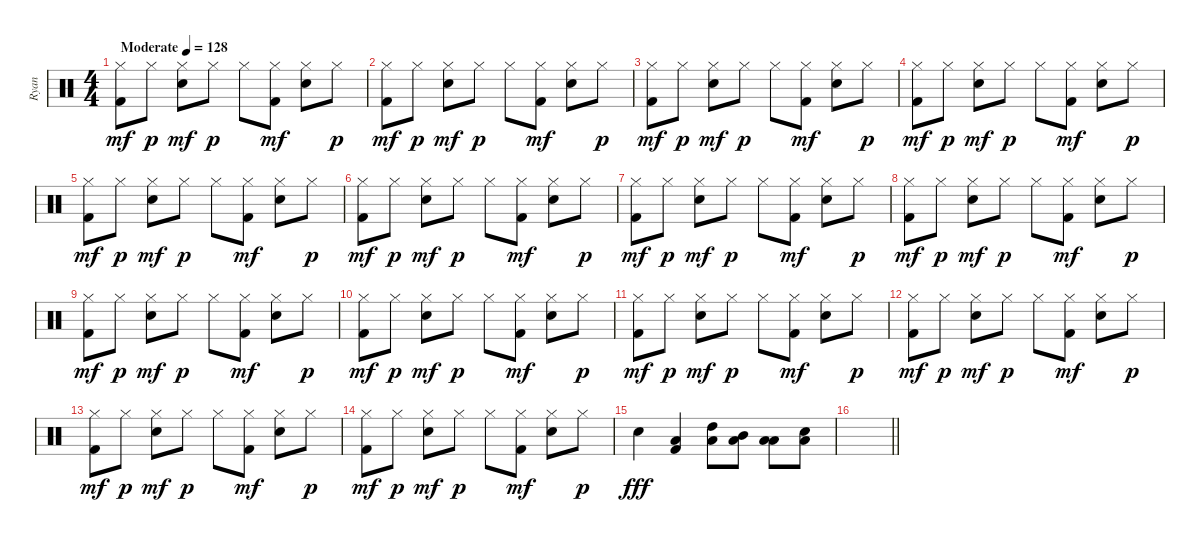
\track ("Ryan" "Ryan") {instrument percussion}
\staff {score}
\articulation defaults
\ts (4 4)
\tempo (128 "Moderate")
\clef neutral
\ks c
("Kick (hit) 2" "Hi-Hat (closed)").8{dy mf} "Hi-Hat (closed)".8{dy p} ("Snare (hit) 2" "Hi-Hat (closed)").8{dy mf} "Hi-Hat (closed)".8{dy p} "Hi-Hat (closed)".8 ("Kick (hit) 2" "Hi-Hat (closed)").8{dy mf} ("Snare (hit) 2" "Hi-Hat (closed)").8 "Hi-Hat (closed)".8{dy p} |
("Kick (hit) 2" "Hi-Hat (closed)").8{dy mf} "Hi-Hat (closed)".8{dy p} ("Snare (hit) 2" "Hi-Hat (closed)").8{dy mf} "Hi-Hat (closed)".8{dy p} "Hi-Hat (closed)".8 ("Kick (hit) 2" "Hi-Hat (closed)").8{dy mf} ("Snare (hit) 2" "Hi-Hat (closed)").8 "Hi-Hat (closed)".8{dy p} |
("Kick (hit) 2" "Hi-Hat (closed)").8{dy mf} "Hi-Hat (closed)".8{dy p} ("Snare (hit) 2" "Hi-Hat (closed)").8{dy mf} "Hi-Hat (closed)".8{dy p} "Hi-Hat (closed)".8 ("Kick (hit) 2" "Hi-Hat (closed)").8{dy mf} ("Snare (hit) 2" "Hi-Hat (closed)").8 "Hi-Hat (closed)".8{dy p} |
("Kick (hit) 2" "Hi-Hat (closed)").8{dy mf} "Hi-Hat (closed)".8{dy p} ("Snare (hit) 2" "Hi-Hat (closed)").8{dy mf} "Hi-Hat (closed)".8{dy p} "Hi-Hat (closed)".8 ("Kick (hit) 2" "Hi-Hat (closed)").8{dy mf} ("Snare (hit) 2" "Hi-Hat (closed)").8 "Hi-Hat (closed)".8{dy p} |
("Kick (hit) 2" "Hi-Hat (closed)").8{dy mf} "Hi-Hat (closed)".8{dy p} ("Snare (hit) 2" "Hi-Hat (closed)").8{dy mf} "Hi-Hat (closed)".8{dy p} "Hi-Hat (closed)".8 ("Kick (hit) 2" "Hi-Hat (closed)").8{dy mf} ("Snare (hit) 2" "Hi-Hat (closed)").8 "Hi-Hat (closed)".8{dy p} |
("Kick (hit) 2" "Hi-Hat (closed)").8{dy mf} "Hi-Hat (closed)".8{dy p} ("Snare (hit) 2" "Hi-Hat (closed)").8{dy mf} "Hi-Hat (closed)".8{dy p} "Hi-Hat (closed)".8 ("Kick (hit) 2" "Hi-Hat (closed)").8{dy mf} ("Snare (hit) 2" "Hi-Hat (closed)").8 "Hi-Hat (closed)".8{dy p} |
("Kick (hit) 2" "Hi-Hat (closed)").8{dy mf} "Hi-Hat (closed)".8{dy p} ("Snare (hit) 2" "Hi-Hat (closed)").8{dy mf} "Hi-Hat (closed)".8{dy p} "Hi-Hat (closed)".8 ("Kick (hit) 2" "Hi-Hat (closed)").8{dy mf} ("Snare (hit) 2" "Hi-Hat (closed)").8 "Hi-Hat (closed)".8{dy p} |
("Kick (hit) 2" "Hi-Hat (closed)").8{dy mf} "Hi-Hat (closed)".8{dy p} ("Snare (hit) 2" "Hi-Hat (closed)").8{dy mf} "Hi-Hat (closed)".8{dy p} "Hi-Hat (closed)".8 ("Kick (hit) 2" "Hi-Hat (closed)").8{dy mf} ("Snare (hit) 2" "Hi-Hat (closed)").8 "Hi-Hat (closed)".8{dy p} |
("Kick (hit) 2" "Hi-Hat (closed)").8{dy mf} "Hi-Hat (closed)".8{dy p} ("Snare (hit) 2" "Hi-Hat (closed)").8{dy mf} "Hi-Hat (closed)".8{dy p} "Hi-Hat (closed)".8 ("Kick (hit) 2" "Hi-Hat (closed)").8{dy mf} ("Snare (hit) 2" "Hi-Hat (closed)").8 "Hi-Hat (closed)".8{dy p} |
("Kick (hit) 2" "Hi-Hat (closed)").8{dy mf} "Hi-Hat (closed)".8{dy p} ("Snare (hit) 2" "Hi-Hat (closed)").8{dy mf} "Hi-Hat (closed)".8{dy p} "Hi-Hat (closed)".8 ("Kick (hit) 2" "Hi-Hat (closed)").8{dy mf} ("Snare (hit) 2" "Hi-Hat (closed)").8 "Hi-Hat (closed)".8{dy p} |
("Kick (hit) 2" "Hi-Hat (closed)").8{dy mf} "Hi-Hat (closed)".8{dy p} ("Snare (hit) 2" "Hi-Hat (closed)").8{dy mf} "Hi-Hat (closed)".8{dy p} "Hi-Hat (closed)".8 ("Kick (hit) 2" "Hi-Hat (closed)").8{dy mf} ("Snare (hit) 2" "Hi-Hat (closed)").8 "Hi-Hat (closed)".8{dy p} |
("Kick (hit) 2" "Hi-Hat (closed)").8{dy mf} "Hi-Hat (closed)".8{dy p} ("Snare (hit) 2" "Hi-Hat (closed)").8{dy mf} "Hi-Hat (closed)".8{dy p} "Hi-Hat (closed)".8 ("Kick (hit) 2" "Hi-Hat (closed)").8{dy mf} ("Snare (hit) 2" "Hi-Hat (closed)").8 "Hi-Hat (closed)".8{dy p} |
("Kick (hit) 2" "Hi-Hat (closed)").8{dy mf} "Hi-Hat (closed)".8{dy p} ("Snare (hit) 2" "Hi-Hat (closed)").8{dy mf} "Hi-Hat (closed)".8{dy p} "Hi-Hat (closed)".8 ("Kick (hit) 2" "Hi-Hat (closed)").8{dy mf} ("Snare (hit) 2" "Hi-Hat (closed)").8 "Hi-Hat (closed)".8{dy p} |
("Kick (hit) 2" "Hi-Hat (closed)").8{dy mf} "Hi-Hat (closed)".8{dy p} ("Snare (hit) 2" "Hi-Hat (closed)").8{dy mf} "Hi-Hat (closed)".8{dy p} "Hi-Hat (closed)".8 ("Kick (hit) 2" "Hi-Hat (closed)").8{dy mf} ("Snare (hit) 2" "Hi-Hat (closed)").8 "Hi-Hat (closed)".8{dy p} |
"Snare (hit) 2".4{dy fff} ("Kick (hit) 2" "Low Floor Tom (hit)").4 ("High Tom (hit)" "Low Floor Tom (hit)").8 ("Mid Tom (hit)" "Low Floor Tom (hit)").8 ("Low Tom (hit)" "Low Floor Tom (hit)").8 ("Snare (hit) 2" "Low Floor Tom (hit)").8 |
\barLineRight lightlight
